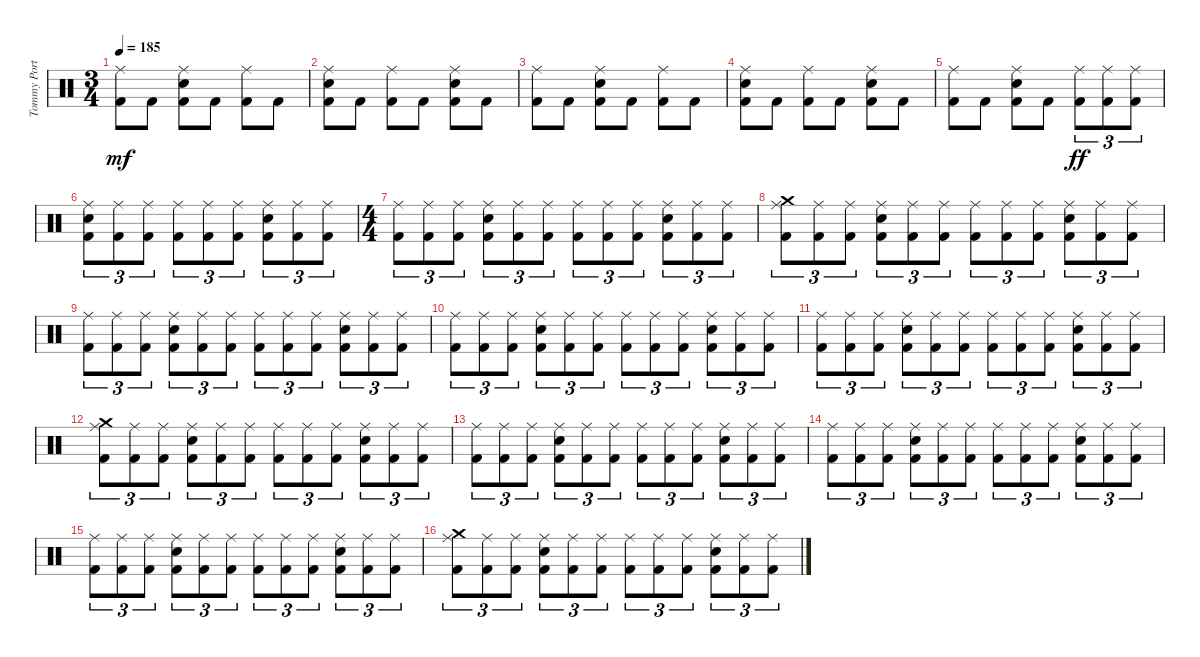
\track ("Tommy Portino" "Tommy Port") {instrument percussion}
\staff {score}
\articulation defaults
\ts (3 4)
\tempo 185
\clef neutral
\ks c
("Ride (middle)" "Kick (hit) 2").8{dy mf} "Kick (hit) 2".8 ("Ride (middle)" "Snare (hit) 2" "Kick (hit) 2").8 "Kick (hit) 2".8 ("Ride (middle)" "Kick (hit) 2").8 "Kick (hit) 2".8 |
("Ride (middle)" "Snare (hit) 2" "Kick (hit) 2").8 "Kick (hit) 2".8 ("Ride (middle)" "Kick (hit) 2").8 "Kick (hit) 2".8 ("Ride (middle)" "Snare (hit) 2" "Kick (hit) 2").8 "Kick (hit) 2".8 |
("Ride (middle)" "Kick (hit) 2").8 "Kick (hit) 2".8 ("Ride (middle)" "Snare (hit) 2" "Kick (hit) 2").8 "Kick (hit) 2".8 ("Ride (middle)" "Kick (hit) 2").8 "Kick (hit) 2".8 |
("Ride (middle)" "Snare (hit) 2" "Kick (hit) 2").8 "Kick (hit) 2".8 ("Ride (middle)" "Kick (hit) 2").8 "Kick (hit) 2".8 ("Ride (middle)" "Snare (hit) 2" "Kick (hit) 2").8 "Kick (hit) 2".8 |
("Ride (middle)" "Kick (hit) 2").8 "Kick (hit) 2".8 ("Ride (middle)" "Snare (hit) 2" "Kick (hit) 2").8 "Kick (hit) 2".8 ("Ride (middle)" "Kick (hit) 2").8{tu (3 2) dy ff} ("Ride (middle)" "Kick (hit) 2").8{tu (3 2)} ("Ride (middle)" "Kick (hit) 2").8{tu (3 2)} |
("Ride (middle)" "Snare (hit) 2" "Kick (hit) 2").8{tu (3 2)} ("Ride (middle)" "Kick (hit) 2").8{tu (3 2)} ("Ride (middle)" "Kick (hit) 2").8{tu (3 2)} ("Ride (middle)" "Kick (hit) 2").8{tu (3 2)} ("Ride (middle)" "Kick (hit) 2").8{tu (3 2)} ("Ride (middle)" "Kick (hit) 2").8{tu (3 2)} ("Ride (middle)" "Snare (hit) 2" "Kick (hit) 2").8{tu (3 2)} ("Ride (middle)" "Kick (hit) 2").8{tu (3 2)} ("Ride (middle)" "Kick (hit) 2").8{tu (3 2)} |
\ts (4 4)
("Ride (middle)" "Kick (hit) 2").8{tu (3 2)} ("Ride (middle)" "Kick (hit) 2").8{tu (3 2)} ("Ride (middle)" "Kick (hit) 2").8{tu (3 2)} ("Ride (middle)" "Snare (hit) 2" "Kick (hit) 2").8{tu (3 2)} ("Ride (middle)" "Kick (hit) 2").8{tu (3 2)} ("Ride (middle)" "Kick (hit) 2").8{tu (3 2)} ("Ride (middle)" "Kick (hit) 2").8{tu (3 2)} ("Ride (middle)" "Kick (hit) 2").8{tu (3 2)} ("Ride (middle)" "Kick (hit) 2").8{tu (3 2)} ("Ride (middle)" "Snare (hit) 2" "Kick (hit) 2").8{tu (3 2)} ("Ride (middle)" "Kick (hit) 2").8{tu (3 2)} ("Ride (middle)" "Kick (hit) 2").8{tu (3 2)} |
("Crash medium (hit)" "Ride (middle)" "Kick (hit) 2").8{tu (3 2)} ("Ride (middle)" "Kick (hit) 2").8{tu (3 2)} ("Ride (middle)" "Kick (hit) 2").8{tu (3 2)} ("Ride (middle)" "Snare (hit) 2" "Kick (hit) 2").8{tu (3 2)} ("Ride (middle)" "Kick (hit) 2").8{tu (3 2)} ("Ride (middle)" "Kick (hit) 2").8{tu (3 2)} ("Ride (middle)" "Kick (hit) 2").8{tu (3 2)} ("Ride (middle)" "Kick (hit) 2").8{tu (3 2)} ("Ride (middle)" "Kick (hit) 2").8{tu (3 2)} ("Ride (middle)" "Snare (hit) 2" "Kick (hit) 2").8{tu (3 2)} ("Ride (middle)" "Kick (hit) 2").8{tu (3 2)} ("Ride (middle)" "Kick (hit) 2").8{tu (3 2)} |
("Ride (middle)" "Kick (hit) 2").8{tu (3 2)} ("Ride (middle)" "Kick (hit) 2").8{tu (3 2)} ("Ride (middle)" "Kick (hit) 2").8{tu (3 2)} ("Ride (middle)" "Snare (hit) 2" "Kick (hit) 2").8{tu (3 2)} ("Ride (middle)" "Kick (hit) 2").8{tu (3 2)} ("Ride (middle)" "Kick (hit) 2").8{tu (3 2)} ("Ride (middle)" "Kick (hit) 2").8{tu (3 2)} ("Ride (middle)" "Kick (hit) 2").8{tu (3 2)} ("Ride (middle)" "Kick (hit) 2").8{tu (3 2)} ("Ride (middle)" "Snare (hit) 2" "Kick (hit) 2").8{tu (3 2)} ("Ride (middle)" "Kick (hit) 2").8{tu (3 2)} ("Ride (middle)" "Kick (hit) 2").8{tu (3 2)} |
("Ride (middle)" "Kick (hit) 2").8{tu (3 2)} ("Ride (middle)" "Kick (hit) 2").8{tu (3 2)} ("Ride (middle)" "Kick (hit) 2").8{tu (3 2)} ("Ride (middle)" "Snare (hit) 2" "Kick (hit) 2").8{tu (3 2)} ("Ride (middle)" "Kick (hit) 2").8{tu (3 2)} ("Ride (middle)" "Kick (hit) 2").8{tu (3 2)} ("Ride (middle)" "Kick (hit) 2").8{tu (3 2)} ("Ride (middle)" "Kick (hit) 2").8{tu (3 2)} ("Ride (middle)" "Kick (hit) 2").8{tu (3 2)} ("Ride (middle)" "Snare (hit) 2" "Kick (hit) 2").8{tu (3 2)} ("Ride (middle)" "Kick (hit) 2").8{tu (3 2)} ("Ride (middle)" "Kick (hit) 2").8{tu (3 2)} |
("Ride (middle)" "Kick (hit) 2").8{tu (3 2)} ("Ride (middle)" "Kick (hit) 2").8{tu (3 2)} ("Ride (middle)" "Kick (hit) 2").8{tu (3 2)} ("Ride (middle)" "Snare (hit) 2" "Kick (hit) 2").8{tu (3 2)} ("Ride (middle)" "Kick (hit) 2").8{tu (3 2)} ("Ride (middle)" "Kick (hit) 2").8{tu (3 2)} ("Ride (middle)" "Kick (hit) 2").8{tu (3 2)} ("Ride (middle)" "Kick (hit) 2").8{tu (3 2)} ("Ride (middle)" "Kick (hit) 2").8{tu (3 2)} ("Ride (middle)" "Snare (hit) 2" "Kick (hit) 2").8{tu (3 2)} ("Ride (middle)" "Kick (hit) 2").8{tu (3 2)} ("Ride (middle)" "Kick (hit) 2").8{tu (3 2)} |
("Crash medium (hit)" "Ride (middle)" "Kick (hit) 2").8{tu (3 2)} ("Ride (middle)" "Kick (hit) 2").8{tu (3 2)} ("Ride (middle)" "Kick (hit) 2").8{tu (3 2)} ("Ride (middle)" "Snare (hit) 2" "Kick (hit) 2").8{tu (3 2)} ("Ride (middle)" "Kick (hit) 2").8{tu (3 2)} ("Ride (middle)" "Kick (hit) 2").8{tu (3 2)} ("Ride (middle)" "Kick (hit) 2").8{tu (3 2)} ("Ride (middle)" "Kick (hit) 2").8{tu (3 2)} ("Ride (middle)" "Kick (hit) 2").8{tu (3 2)} ("Ride (middle)" "Snare (hit) 2" "Kick (hit) 2").8{tu (3 2)} ("Ride (middle)" "Kick (hit) 2").8{tu (3 2)} ("Ride (middle)" "Kick (hit) 2").8{tu (3 2)} |
("Ride (middle)" "Kick (hit) 2").8{tu (3 2)} ("Ride (middle)" "Kick (hit) 2").8{tu (3 2)} ("Ride (middle)" "Kick (hit) 2").8{tu (3 2)} ("Ride (middle)" "Snare (hit) 2" "Kick (hit) 2").8{tu (3 2)} ("Ride (middle)" "Kick (hit) 2").8{tu (3 2)} ("Ride (middle)" "Kick (hit) 2").8{tu (3 2)} ("Ride (middle)" "Kick (hit) 2").8{tu (3 2)} ("Ride (middle)" "Kick (hit) 2").8{tu (3 2)} ("Ride (middle)" "Kick (hit) 2").8{tu (3 2)} ("Ride (middle)" "Snare (hit) 2" "Kick (hit) 2").8{tu (3 2)} ("Ride (middle)" "Kick (hit) 2").8{tu (3 2)} ("Ride (middle)" "Kick (hit) 2").8{tu (3 2)} |
("Ride (middle)" "Kick (hit) 2").8{tu (3 2)} ("Ride (middle)" "Kick (hit) 2").8{tu (3 2)} ("Ride (middle)" "Kick (hit) 2").8{tu (3 2)} ("Ride (middle)" "Snare (hit) 2" "Kick (hit) 2").8{tu (3 2)} ("Ride (middle)" "Kick (hit) 2").8{tu (3 2)} ("Ride (middle)" "Kick (hit) 2").8{tu (3 2)} ("Ride (middle)" "Kick (hit) 2").8{tu (3 2)} ("Ride (middle)" "Kick (hit) 2").8{tu (3 2)} ("Ride (middle)" "Kick (hit) 2").8{tu (3 2)} ("Ride (middle)" "Snare (hit) 2" "Kick (hit) 2").8{tu (3 2)} ("Ride (middle)" "Kick (hit) 2").8{tu (3 2)} ("Ride (middle)" "Kick (hit) 2").8{tu (3 2)} |
("Ride (middle)" "Kick (hit) 2").8{tu (3 2)} ("Ride (middle)" "Kick (hit) 2").8{tu (3 2)} ("Ride (middle)" "Kick (hit) 2").8{tu (3 2)} ("Ride (middle)" "Snare (hit) 2" "Kick (hit) 2").8{tu (3 2)} ("Ride (middle)" "Kick (hit) 2").8{tu (3 2)} ("Ride (middle)" "Kick (hit) 2").8{tu (3 2)} ("Ride (middle)" "Kick (hit) 2").8{tu (3 2)} ("Ride (middle)" "Kick (hit) 2").8{tu (3 2)} ("Ride (middle)" "Kick (hit) 2").8{tu (3 2)} ("Ride (middle)" "Snare (hit) 2" "Kick (hit) 2").8{tu (3 2)} ("Ride (middle)" "Kick (hit) 2").8{tu (3 2)} ("Ride (middle)" "Kick (hit) 2").8{tu (3 2)} |
("Crash medium (hit)" "Ride (middle)" "Kick (hit) 2").8{tu (3 2)} ("Ride (middle)" "Kick (hit) 2").8{tu (3 2)} ("Ride (middle)" "Kick (hit) 2").8{tu (3 2)} ("Ride (middle)" "Snare (hit) 2" "Kick (hit) 2").8{tu (3 2)} ("Ride (middle)" "Kick (hit) 2").8{tu (3 2)} ("Ride (middle)" "Kick (hit) 2").8{tu (3 2)} ("Ride (middle)" "Kick (hit) 2").8{tu (3 2)} ("Ride (middle)" "Kick (hit) 2").8{tu (3 2)} ("Ride (middle)" "Kick (hit) 2").8{tu (3 2)} ("Ride (middle)" "Snare (hit) 2" "Kick (hit) 2").8{tu (3 2)} ("Ride (middle)" "Kick (hit) 2").8{tu (3 2)} ("Ride (middle)" "Kick (hit) 2").8{tu (3 2)}
